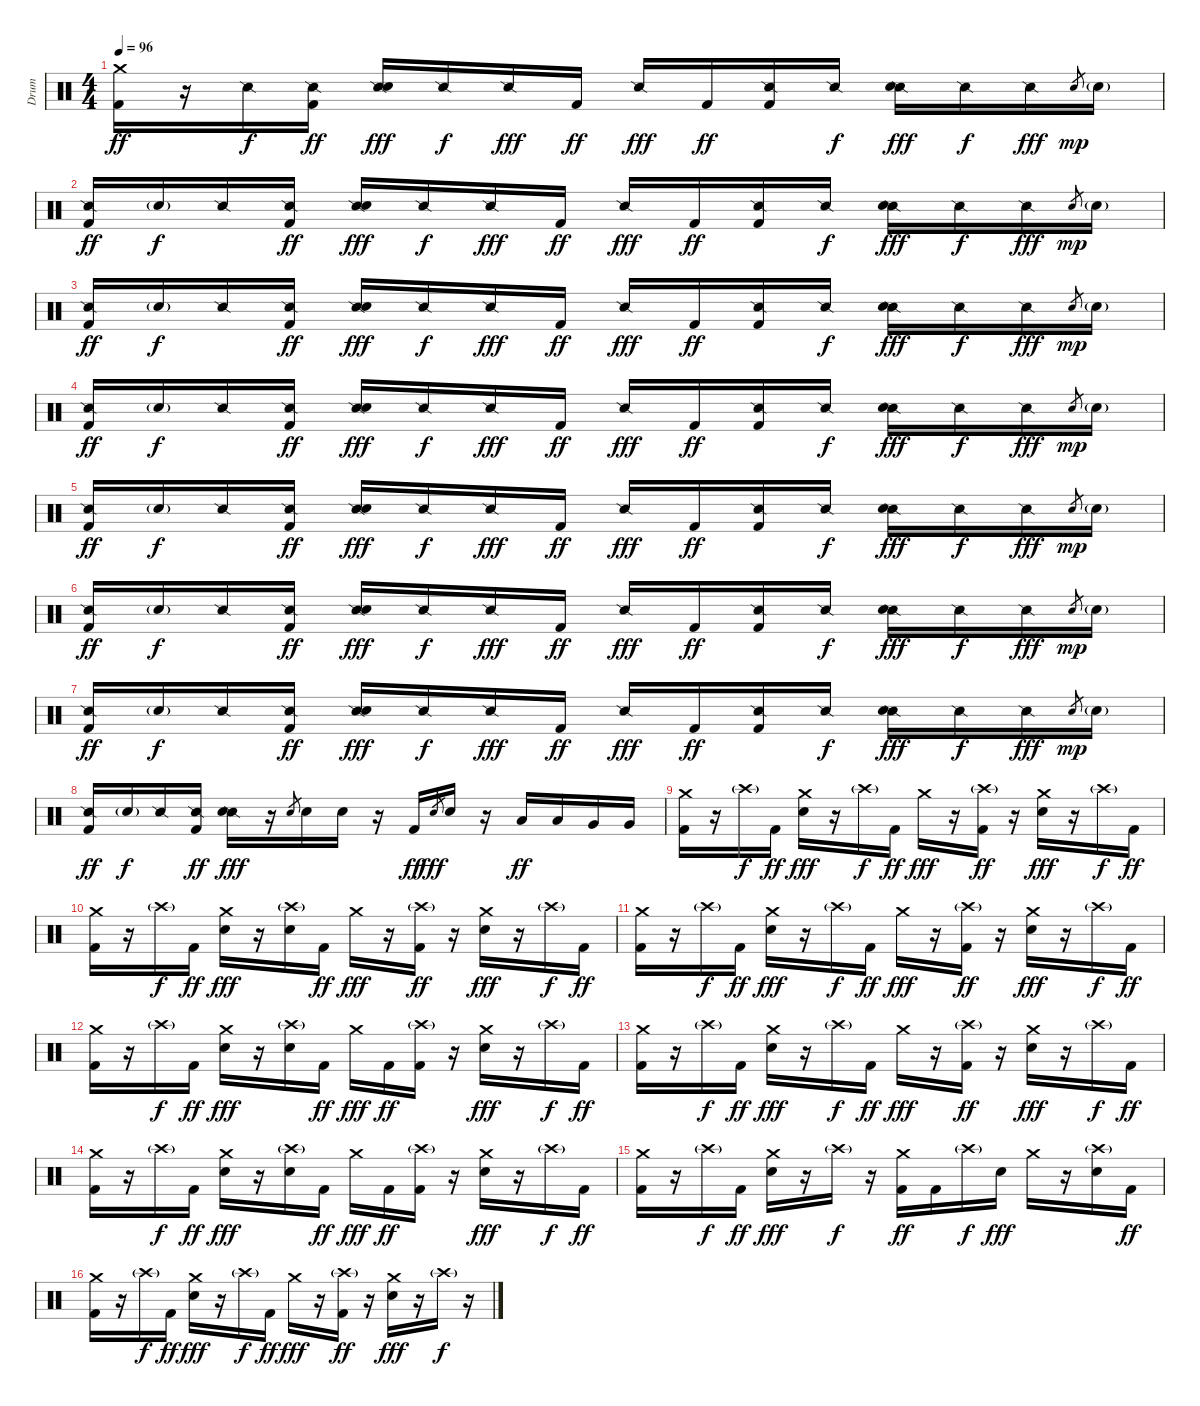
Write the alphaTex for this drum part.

\track ("Drum" "Drum") {instrument percussion}
\staff {score}
\articulation defaults
\ts (4 4)
\tempo 96
\clef neutral
\ks c
("Crash medium (hit)" "Kick (hit) 2").16{dy ff} r.16 "Snare (side stick) 2".16{dy f} ("Snare (side stick) 2" "Kick (hit) 2").16{dy ff} ("Snare (side stick) 2" "Snare (hit) 2").16{dy fff} "Snare (side stick) 2".16{dy f} "Snare (side stick) 2".16{dy fff} "Kick (hit) 2".16{dy ff} "Snare (side stick) 2".16{dy fff} "Kick (hit) 2".16{dy ff} ("Snare (side stick) 2" "Kick (hit) 2").16 "Snare (side stick) 2".16{dy f} ("Snare (side stick) 2" "Snare (hit) 2").16{dy fff} "Snare (side stick) 2".16{dy f} "Snare (side stick) 2".16{dy fff} "Snare (hit) 2".8{gr dy mp} "Snare (hit) 2"{g}.16 |
("Snare (side stick) 2" "Kick (hit) 2").16{dy ff} "Snare (hit) 2"{g}.16{dy f} "Snare (side stick) 2".16 ("Snare (side stick) 2" "Kick (hit) 2").16{dy ff} ("Snare (side stick) 2" "Snare (hit) 2").16{dy fff} "Snare (side stick) 2".16{dy f} "Snare (side stick) 2".16{dy fff} "Kick (hit) 2".16{dy ff} "Snare (side stick) 2".16{dy fff} "Kick (hit) 2".16{dy ff} ("Snare (side stick) 2" "Kick (hit) 2").16 "Snare (side stick) 2".16{dy f} ("Snare (side stick) 2" "Snare (hit) 2").16{dy fff} "Snare (side stick) 2".16{dy f} "Snare (side stick) 2".16{dy fff} "Snare (hit) 2".8{gr dy mp} "Snare (hit) 2"{g}.16 |
("Snare (side stick) 2" "Kick (hit) 2").16{dy ff} "Snare (hit) 2"{g}.16{dy f} "Snare (side stick) 2".16 ("Snare (side stick) 2" "Kick (hit) 2").16{dy ff} ("Snare (side stick) 2" "Snare (hit) 2").16{dy fff} "Snare (side stick) 2".16{dy f} "Snare (side stick) 2".16{dy fff} "Kick (hit) 2".16{dy ff} "Snare (side stick) 2".16{dy fff} "Kick (hit) 2".16{dy ff} ("Snare (side stick) 2" "Kick (hit) 2").16 "Snare (side stick) 2".16{dy f} ("Snare (side stick) 2" "Snare (hit) 2").16{dy fff} "Snare (side stick) 2".16{dy f} "Snare (side stick) 2".16{dy fff} "Snare (hit) 2".8{gr dy mp} "Snare (hit) 2"{g}.16 |
("Snare (side stick) 2" "Kick (hit) 2").16{dy ff} "Snare (hit) 2"{g}.16{dy f} "Snare (side stick) 2".16 ("Snare (side stick) 2" "Kick (hit) 2").16{dy ff} ("Snare (side stick) 2" "Snare (hit) 2").16{dy fff} "Snare (side stick) 2".16{dy f} "Snare (side stick) 2".16{dy fff} "Kick (hit) 2".16{dy ff} "Snare (side stick) 2".16{dy fff} "Kick (hit) 2".16{dy ff} ("Snare (side stick) 2" "Kick (hit) 2").16 "Snare (side stick) 2".16{dy f} ("Snare (side stick) 2" "Snare (hit) 2").16{dy fff} "Snare (side stick) 2".16{dy f} "Snare (side stick) 2".16{dy fff} "Snare (hit) 2".8{gr dy mp} "Snare (hit) 2"{g}.16 |
("Snare (side stick) 2" "Kick (hit) 2").16{dy ff} "Snare (hit) 2"{g}.16{dy f} "Snare (side stick) 2".16 ("Snare (side stick) 2" "Kick (hit) 2").16{dy ff} ("Snare (side stick) 2" "Snare (hit) 2").16{dy fff} "Snare (side stick) 2".16{dy f} "Snare (side stick) 2".16{dy fff} "Kick (hit) 2".16{dy ff} "Snare (side stick) 2".16{dy fff} "Kick (hit) 2".16{dy ff} ("Snare (side stick) 2" "Kick (hit) 2").16 "Snare (side stick) 2".16{dy f} ("Snare (side stick) 2" "Snare (hit) 2").16{dy fff} "Snare (side stick) 2".16{dy f} "Snare (side stick) 2".16{dy fff} "Snare (hit) 2".8{gr dy mp} "Snare (hit) 2"{g}.16 |
("Snare (side stick) 2" "Kick (hit) 2").16{dy ff} "Snare (hit) 2"{g}.16{dy f} "Snare (side stick) 2".16 ("Snare (side stick) 2" "Kick (hit) 2").16{dy ff} ("Snare (side stick) 2" "Snare (hit) 2").16{dy fff} "Snare (side stick) 2".16{dy f} "Snare (side stick) 2".16{dy fff} "Kick (hit) 2".16{dy ff} "Snare (side stick) 2".16{dy fff} "Kick (hit) 2".16{dy ff} ("Snare (side stick) 2" "Kick (hit) 2").16 "Snare (side stick) 2".16{dy f} ("Snare (side stick) 2" "Snare (hit) 2").16{dy fff} "Snare (side stick) 2".16{dy f} "Snare (side stick) 2".16{dy fff} "Snare (hit) 2".8{gr dy mp} "Snare (hit) 2"{g}.16 |
("Snare (side stick) 2" "Kick (hit) 2").16{dy ff} "Snare (hit) 2"{g}.16{dy f} "Snare (side stick) 2".16 ("Snare (side stick) 2" "Kick (hit) 2").16{dy ff} ("Snare (side stick) 2" "Snare (hit) 2").16{dy fff} "Snare (side stick) 2".16{dy f} "Snare (side stick) 2".16{dy fff} "Kick (hit) 2".16{dy ff} "Snare (side stick) 2".16{dy fff} "Kick (hit) 2".16{dy ff} ("Snare (side stick) 2" "Kick (hit) 2").16 "Snare (side stick) 2".16{dy f} ("Snare (side stick) 2" "Snare (hit) 2").16{dy fff} "Snare (side stick) 2".16{dy f} "Snare (side stick) 2".16{dy fff} "Snare (hit) 2".8{gr dy mp} "Snare (hit) 2"{g}.16 |
("Snare (side stick) 2" "Kick (hit) 2").16{dy ff} "Snare (hit) 2"{g}.16{dy f} "Snare (side stick) 2".16 ("Snare (side stick) 2" "Kick (hit) 2").16{dy ff} ("Snare (side stick) 2" "Snare (hit) 2").16{dy fff} r.16 "Snare (hit) 2".8{gr} "Snare (hit) 2".16 "Snare (hit) 2".16 r.16 "Kick (hit) 2".16{dy ff} "Snare (hit) 2".8{gr dy fff} "Snare (hit) 2".16 r.16 "Low Tom (hit)".16{dy ff} "Low Tom (hit)".16 "Very Low Tom (hit)".16 "Very Low Tom (hit)".16 |
("Crash medium (hit)" "Kick (hit) 2").16 r.16 "Crash high (hit)"{g}.16{dy f} "Kick (hit) 2".16{dy ff} ("Crash medium (hit)" "Snare (hit) 2").16{dy fff} r.16 "Crash high (hit)"{g}.16{dy f} "Kick (hit) 2".16{dy ff} "Crash medium (hit)".16{dy fff} r.16 ("Crash high (hit)"{g} "Kick (hit) 2").16{dy ff} r.16 ("Crash medium (hit)" "Snare (hit) 2").16{dy fff} r.16 "Crash high (hit)"{g}.16{dy f} "Kick (hit) 2".16{dy ff} |
("Crash medium (hit)" "Kick (hit) 2").16 r.16 "Crash high (hit)"{g}.16{dy f} "Kick (hit) 2".16{dy ff} ("Crash medium (hit)" "Snare (hit) 2").16{dy fff} r.16 ("Crash high (hit)"{g} "Snare (hit) 2").16 "Kick (hit) 2".16{dy ff} "Crash medium (hit)".16{dy fff} r.16 ("Crash high (hit)"{g} "Kick (hit) 2").16{dy ff} r.16 ("Crash medium (hit)" "Snare (hit) 2").16{dy fff} r.16 "Crash high (hit)"{g}.16{dy f} "Kick (hit) 2".16{dy ff} |
("Crash medium (hit)" "Kick (hit) 2").16 r.16 "Crash high (hit)"{g}.16{dy f} "Kick (hit) 2".16{dy ff} ("Crash medium (hit)" "Snare (hit) 2").16{dy fff} r.16 "Crash high (hit)"{g}.16{dy f} "Kick (hit) 2".16{dy ff} "Crash medium (hit)".16{dy fff} r.16 ("Crash high (hit)"{g} "Kick (hit) 2").16{dy ff} r.16 ("Crash medium (hit)" "Snare (hit) 2").16{dy fff} r.16 "Crash high (hit)"{g}.16{dy f} "Kick (hit) 2".16{dy ff} |
("Crash medium (hit)" "Kick (hit) 2").16 r.16 "Crash high (hit)"{g}.16{dy f} "Kick (hit) 2".16{dy ff} ("Crash medium (hit)" "Snare (hit) 2").16{dy fff} r.16 ("Crash high (hit)"{g} "Snare (hit) 2").16 "Kick (hit) 2".16{dy ff} "Crash medium (hit)".16{dy fff} "Kick (hit) 2".16{dy ff} ("Crash high (hit)"{g} "Kick (hit) 2").16 r.16 ("Crash medium (hit)" "Snare (hit) 2").16{dy fff} r.16 "Crash high (hit)"{g}.16{dy f} "Kick (hit) 2".16{dy ff} |
("Crash medium (hit)" "Kick (hit) 2").16 r.16 "Crash high (hit)"{g}.16{dy f} "Kick (hit) 2".16{dy ff} ("Crash medium (hit)" "Snare (hit) 2").16{dy fff} r.16 "Crash high (hit)"{g}.16{dy f} "Kick (hit) 2".16{dy ff} "Crash medium (hit)".16{dy fff} r.16 ("Crash high (hit)"{g} "Kick (hit) 2").16{dy ff} r.16 ("Crash medium (hit)" "Snare (hit) 2").16{dy fff} r.16 "Crash high (hit)"{g}.16{dy f} "Kick (hit) 2".16{dy ff} |
("Crash medium (hit)" "Kick (hit) 2").16 r.16 "Crash high (hit)"{g}.16{dy f} "Kick (hit) 2".16{dy ff} ("Crash medium (hit)" "Snare (hit) 2").16{dy fff} r.16 ("Crash high (hit)"{g} "Snare (hit) 2").16 "Kick (hit) 2".16{dy ff} "Crash medium (hit)".16{dy fff} "Kick (hit) 2".16{dy ff} ("Crash high (hit)"{g} "Kick (hit) 2").16 r.16 ("Crash medium (hit)" "Snare (hit) 2").16{dy fff} r.16 "Crash high (hit)"{g}.16{dy f} "Kick (hit) 2".16{dy ff} |
("Crash medium (hit)" "Kick (hit) 2").16 r.16 "Crash high (hit)"{g}.16{dy f} "Kick (hit) 2".16{dy ff} ("Crash medium (hit)" "Snare (hit) 2").16{dy fff} r.16 "Crash high (hit)"{g}.16{dy f} r.16 ("Crash medium (hit)" "Kick (hit) 2").16{dy ff} "Kick (hit) 2".16 "Crash high (hit)"{g}.16{dy f} "Snare (hit) 2".16{dy fff} "Crash medium (hit)".16 r.16 ("Crash high (hit)"{g} "Snare (hit) 2").16 "Kick (hit) 2".16{dy ff} |
("Crash medium (hit)" "Kick (hit) 2").16 r.16 "Crash high (hit)"{g}.16{dy f} "Kick (hit) 2".16{dy ff} ("Crash medium (hit)" "Snare (hit) 2").16{dy fff} r.16 "Crash high (hit)"{g}.16{dy f} "Kick (hit) 2".16{dy ff} "Crash medium (hit)".16{dy fff} r.16 ("Crash high (hit)"{g} "Kick (hit) 2").16{dy ff} r.16 ("Crash medium (hit)" "Snare (hit) 2").16{dy fff} r.16 "Crash high (hit)"{g}.16{dy f} r.16
